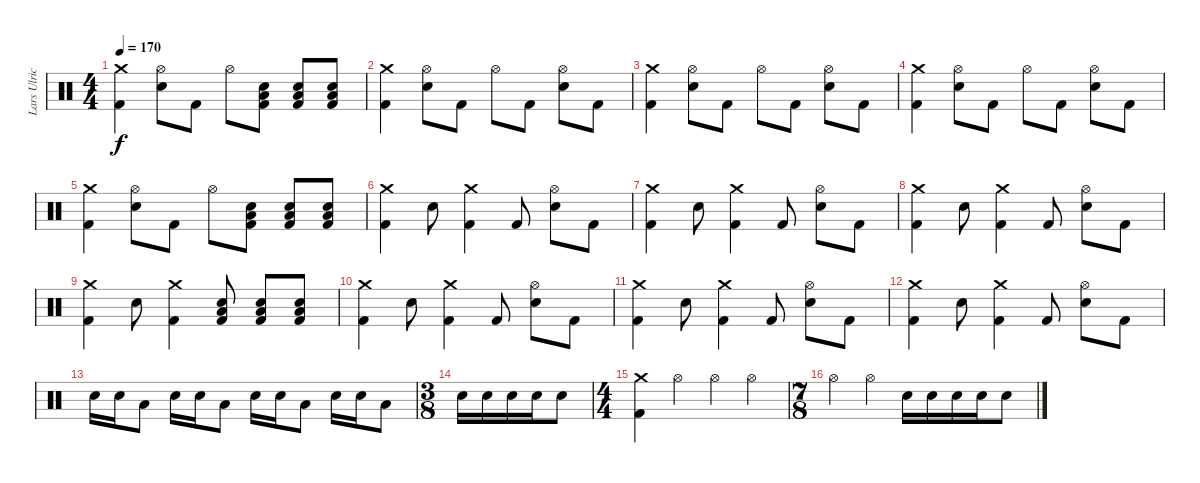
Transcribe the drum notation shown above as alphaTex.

\track ("Lars Ulrich" "Lars Ulric") {instrument percussion}
\staff {score}
\articulation defaults
\ts (4 4)
\tempo 170
\clef neutral
\ks c
("Crash medium (hit)" "Kick (hit) 2").4{dy f} ("Hi-Hat (open)" "Electric Snare (hit)").8 "Kick (hit) 2".8 "Hi-Hat (open)".8 ("Electric Snare (hit)" "Low Floor Tom (hit)" "Kick (hit) 2").8 ("Electric Snare (hit)" "Low Floor Tom (hit)" "Kick (hit) 2").8 ("Electric Snare (hit)" "Low Floor Tom (hit)" "Kick (hit) 2").8 |
("Crash medium (hit)" "Kick (hit) 2").4 ("Hi-Hat (open)" "Electric Snare (hit)").8 "Kick (hit) 2".8 "Hi-Hat (open)".8 "Kick (hit) 2".8 ("Hi-Hat (open)" "Electric Snare (hit)").8 "Kick (hit) 2".8 |
("Crash medium (hit)" "Kick (hit) 2").4 ("Hi-Hat (open)" "Electric Snare (hit)").8 "Kick (hit) 2".8 "Hi-Hat (open)".8 "Kick (hit) 2".8 ("Hi-Hat (open)" "Electric Snare (hit)").8 "Kick (hit) 2".8 |
("Crash medium (hit)" "Kick (hit) 2").4 ("Hi-Hat (open)" "Electric Snare (hit)").8 "Kick (hit) 2".8 "Hi-Hat (open)".8 "Kick (hit) 2".8 ("Hi-Hat (open)" "Electric Snare (hit)").8 "Kick (hit) 2".8 |
("Crash medium (hit)" "Kick (hit) 2").4 ("Hi-Hat (open)" "Electric Snare (hit)").8 "Kick (hit) 2".8 "Hi-Hat (open)".8 ("Electric Snare (hit)" "Low Floor Tom (hit)" "Kick (hit) 2").8 ("Electric Snare (hit)" "Low Floor Tom (hit)" "Kick (hit) 2").8 ("Electric Snare (hit)" "Low Floor Tom (hit)" "Kick (hit) 2").8 |
("Crash medium (hit)" "Kick (hit) 2").4 "Electric Snare (hit)".8 ("Crash medium (hit)" "Kick (hit) 2").4 "Kick (hit) 2".8 ("Hi-Hat (open)" "Electric Snare (hit)").8 "Kick (hit) 2".8 |
("Crash medium (hit)" "Kick (hit) 2").4 "Electric Snare (hit)".8 ("Crash medium (hit)" "Kick (hit) 2").4 "Kick (hit) 2".8 ("Hi-Hat (open)" "Electric Snare (hit)").8 "Kick (hit) 2".8 |
("Crash medium (hit)" "Kick (hit) 2").4 "Electric Snare (hit)".8 ("Crash medium (hit)" "Kick (hit) 2").4 "Kick (hit) 2".8 ("Hi-Hat (open)" "Electric Snare (hit)").8 "Kick (hit) 2".8 |
("Crash medium (hit)" "Kick (hit) 2").4 "Electric Snare (hit)".8 ("Crash medium (hit)" "Kick (hit) 2").4 ("Electric Snare (hit)" "Low Floor Tom (hit)" "Kick (hit) 2").8 ("Electric Snare (hit)" "Low Floor Tom (hit)" "Kick (hit) 2").8 ("Electric Snare (hit)" "Low Floor Tom (hit)" "Kick (hit) 2").8 |
("Crash medium (hit)" "Kick (hit) 2").4 "Electric Snare (hit)".8 ("Crash medium (hit)" "Kick (hit) 2").4 "Kick (hit) 2".8 ("Hi-Hat (open)" "Electric Snare (hit)").8 "Kick (hit) 2".8 |
("Crash medium (hit)" "Kick (hit) 2").4 "Electric Snare (hit)".8 ("Crash medium (hit)" "Kick (hit) 2").4 "Kick (hit) 2".8 ("Hi-Hat (open)" "Electric Snare (hit)").8 "Kick (hit) 2".8 |
("Crash medium (hit)" "Kick (hit) 2").4 "Electric Snare (hit)".8 ("Crash medium (hit)" "Kick (hit) 2").4 "Kick (hit) 2".8 ("Hi-Hat (open)" "Electric Snare (hit)").8 "Kick (hit) 2".8 |
"Electric Snare (hit)".16 "Electric Snare (hit)".16 "Low Floor Tom (hit)".8 "Electric Snare (hit)".16 "Electric Snare (hit)".16 "Low Floor Tom (hit)".8 "Electric Snare (hit)".16 "Electric Snare (hit)".16 "Low Floor Tom (hit)".8 "Electric Snare (hit)".16 "Electric Snare (hit)".16 "Low Floor Tom (hit)".8 |
\ts (3 8)
"Electric Snare (hit)".16 "Electric Snare (hit)".16 "Electric Snare (hit)".16 "Electric Snare (hit)".16 "Electric Snare (hit)".8 |
\ts (4 4)
("Crash medium (hit)" "Kick (hit) 2").4 "Hi-Hat (open)".4 "Hi-Hat (open)".4 "Hi-Hat (open)".4 |
\ts (7 8)
"Hi-Hat (open)".4 "Hi-Hat (open)".4 "Electric Snare (hit)".16 "Electric Snare (hit)".16 "Electric Snare (hit)".16 "Electric Snare (hit)".16 "Electric Snare (hit)".8
